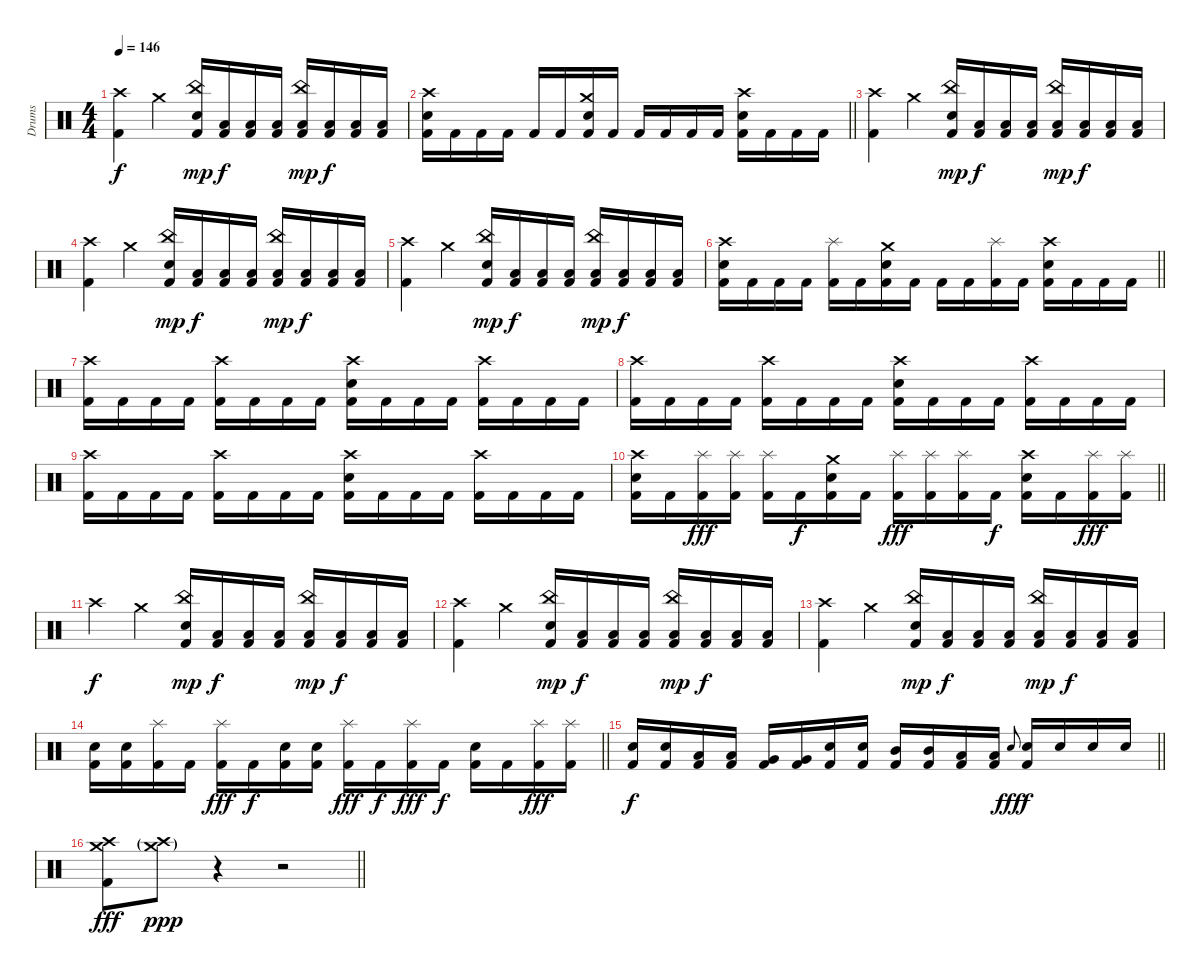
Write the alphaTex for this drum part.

\track ("Drums" "Drums") {instrument percussion}
\staff {score}
\articulation defaults
\ts (4 4)
\tempo 146
\clef neutral
\ks c
("Crash high (hit)" "Kick (hit) 2").4{dy f} "Crash medium (hit)".4 ("China (hit)" "Electric Snare (hit)" "Kick (hit) 2").16{dy mp} ("Low Floor Tom (hit)" "Kick (hit) 2").16{dy f} ("Low Floor Tom (hit)" "Kick (hit) 2").16 ("Low Floor Tom (hit)" "Kick (hit) 2").16 ("China (hit)" "Low Floor Tom (hit)" "Kick (hit) 2").16{dy mp} ("Low Floor Tom (hit)" "Kick (hit) 2").16{dy f} ("Low Floor Tom (hit)" "Kick (hit) 2").16 ("Low Floor Tom (hit)" "Kick (hit) 2").16 |
\barLineRight lightlight
("Crash high (hit)" "Electric Snare (hit)" "Kick (hit) 2").16 "Kick (hit) 2".16 "Kick (hit) 2".16 "Kick (hit) 2".16 "Kick (hit) 2".16 "Kick (hit) 2".16 ("Crash medium (hit)" "Electric Snare (hit)" "Kick (hit) 2").16 "Kick (hit) 2".16 "Kick (hit) 2".16 "Kick (hit) 2".16 "Kick (hit) 2".16 "Kick (hit) 2".16 ("Crash high (hit)" "Electric Snare (hit)" "Kick (hit) 2").16 "Kick (hit) 2".16 "Kick (hit) 2".16 "Kick (hit) 2".16 |
("Crash high (hit)" "Kick (hit) 2").4 "Crash medium (hit)".4 ("China (hit)" "Electric Snare (hit)" "Kick (hit) 2").16{dy mp} ("Low Floor Tom (hit)" "Kick (hit) 2").16{dy f} ("Low Floor Tom (hit)" "Kick (hit) 2").16 ("Low Floor Tom (hit)" "Kick (hit) 2").16 ("China (hit)" "Low Floor Tom (hit)" "Kick (hit) 2").16{dy mp} ("Low Floor Tom (hit)" "Kick (hit) 2").16{dy f} ("Low Floor Tom (hit)" "Kick (hit) 2").16 ("Low Floor Tom (hit)" "Kick (hit) 2").16 |
("Crash high (hit)" "Kick (hit) 2").4 "Crash medium (hit)".4 ("China (hit)" "Electric Snare (hit)" "Kick (hit) 2").16{dy mp} ("Low Floor Tom (hit)" "Kick (hit) 2").16{dy f} ("Low Floor Tom (hit)" "Kick (hit) 2").16 ("Low Floor Tom (hit)" "Kick (hit) 2").16 ("China (hit)" "Low Floor Tom (hit)" "Kick (hit) 2").16{dy mp} ("Low Floor Tom (hit)" "Kick (hit) 2").16{dy f} ("Low Floor Tom (hit)" "Kick (hit) 2").16 ("Low Floor Tom (hit)" "Kick (hit) 2").16 |
("Crash high (hit)" "Kick (hit) 2").4 "Crash medium (hit)".4 ("China (hit)" "Electric Snare (hit)" "Kick (hit) 2").16{dy mp} ("Low Floor Tom (hit)" "Kick (hit) 2").16{dy f} ("Low Floor Tom (hit)" "Kick (hit) 2").16 ("Low Floor Tom (hit)" "Kick (hit) 2").16 ("China (hit)" "Low Floor Tom (hit)" "Kick (hit) 2").16{dy mp} ("Low Floor Tom (hit)" "Kick (hit) 2").16{dy f} ("Low Floor Tom (hit)" "Kick (hit) 2").16 ("Low Floor Tom (hit)" "Kick (hit) 2").16 |
\barLineRight lightlight
("Crash high (hit)" "Electric Snare (hit)" "Kick (hit) 2").16 "Kick (hit) 2".16 "Kick (hit) 2".16 "Kick (hit) 2".16 ("Splash (hit)" "Kick (hit) 2").16 "Kick (hit) 2".16 ("Crash medium (hit)" "Electric Snare (hit)" "Kick (hit) 2").16 "Kick (hit) 2".16 "Kick (hit) 2".16 "Kick (hit) 2".16 ("Splash (hit)" "Kick (hit) 2").16 "Kick (hit) 2".16 ("Crash high (hit)" "Electric Snare (hit)" "Kick (hit) 2").16 "Kick (hit) 2".16 "Kick (hit) 2".16 "Kick (hit) 2".16 |
("Crash high (hit)" "Kick (hit) 2").16 "Kick (hit) 2".16 "Kick (hit) 2".16 "Kick (hit) 2".16 ("Crash high (hit)" "Kick (hit) 2").16 "Kick (hit) 2".16 "Kick (hit) 2".16 "Kick (hit) 2".16 ("Crash high (hit)" "Electric Snare (hit)" "Kick (hit) 2").16 "Kick (hit) 2".16 "Kick (hit) 2".16 "Kick (hit) 2".16 ("Crash high (hit)" "Kick (hit) 2").16 "Kick (hit) 2".16 "Kick (hit) 2".16 "Kick (hit) 2".16 |
("Crash high (hit)" "Kick (hit) 2").16 "Kick (hit) 2".16 "Kick (hit) 2".16 "Kick (hit) 2".16 ("Crash high (hit)" "Kick (hit) 2").16 "Kick (hit) 2".16 "Kick (hit) 2".16 "Kick (hit) 2".16 ("Crash high (hit)" "Electric Snare (hit)" "Kick (hit) 2").16 "Kick (hit) 2".16 "Kick (hit) 2".16 "Kick (hit) 2".16 ("Crash high (hit)" "Kick (hit) 2").16 "Kick (hit) 2".16 "Kick (hit) 2".16 "Kick (hit) 2".16 |
("Crash high (hit)" "Kick (hit) 2").16 "Kick (hit) 2".16 "Kick (hit) 2".16 "Kick (hit) 2".16 ("Crash high (hit)" "Kick (hit) 2").16 "Kick (hit) 2".16 "Kick (hit) 2".16 "Kick (hit) 2".16 ("Crash high (hit)" "Electric Snare (hit)" "Kick (hit) 2").16 "Kick (hit) 2".16 "Kick (hit) 2".16 "Kick (hit) 2".16 ("Crash high (hit)" "Kick (hit) 2").16 "Kick (hit) 2".16 "Kick (hit) 2".16 "Kick (hit) 2".16 |
\barLineRight lightlight
("Crash high (hit)" "Electric Snare (hit)" "Kick (hit) 2").16 "Kick (hit) 2".16 ("Splash (hit)" "Kick (hit) 2").16{dy fff} ("Splash (hit)" "Kick (hit) 2").16 ("Splash (hit)" "Kick (hit) 2").16 "Kick (hit) 2".16{dy f} ("Crash medium (hit)" "Electric Snare (hit)" "Kick (hit) 2").16 "Kick (hit) 2".16 ("Splash (hit)" "Kick (hit) 2").16{dy fff} ("Splash (hit)" "Kick (hit) 2").16 ("Splash (hit)" "Kick (hit) 2").16 "Kick (hit) 2".16{dy f} ("Crash high (hit)" "Electric Snare (hit)" "Kick (hit) 2").16 "Kick (hit) 2".16 ("Splash (hit)" "Kick (hit) 2").16{dy fff} ("Splash (hit)" "Kick (hit) 2").16 |
"Crash high (hit)".4{dy f} "Crash medium (hit)".4 ("China (hit)" "Electric Snare (hit)" "Kick (hit) 2").16{dy mp} ("Low Floor Tom (hit)" "Kick (hit) 2").16{dy f} ("Low Floor Tom (hit)" "Kick (hit) 2").16 ("Low Floor Tom (hit)" "Kick (hit) 2").16 ("China (hit)" "Low Floor Tom (hit)" "Kick (hit) 2").16{dy mp} ("Low Floor Tom (hit)" "Kick (hit) 2").16{dy f} ("Low Floor Tom (hit)" "Kick (hit) 2").16 ("Low Floor Tom (hit)" "Kick (hit) 2").16 |
("Crash high (hit)" "Kick (hit) 2").4 "Crash medium (hit)".4 ("China (hit)" "Electric Snare (hit)" "Kick (hit) 2").16{dy mp} ("Low Floor Tom (hit)" "Kick (hit) 2").16{dy f} ("Low Floor Tom (hit)" "Kick (hit) 2").16 ("Low Floor Tom (hit)" "Kick (hit) 2").16 ("China (hit)" "Low Floor Tom (hit)" "Kick (hit) 2").16{dy mp} ("Low Floor Tom (hit)" "Kick (hit) 2").16{dy f} ("Low Floor Tom (hit)" "Kick (hit) 2").16 ("Low Floor Tom (hit)" "Kick (hit) 2").16 |
("Crash high (hit)" "Kick (hit) 2").4 "Crash medium (hit)".4 ("China (hit)" "Electric Snare (hit)" "Kick (hit) 2").16{dy mp} ("Low Floor Tom (hit)" "Kick (hit) 2").16{dy f} ("Low Floor Tom (hit)" "Kick (hit) 2").16 ("Low Floor Tom (hit)" "Kick (hit) 2").16 ("China (hit)" "Low Floor Tom (hit)" "Kick (hit) 2").16{dy mp} ("Low Floor Tom (hit)" "Kick (hit) 2").16{dy f} ("Low Floor Tom (hit)" "Kick (hit) 2").16 ("Low Floor Tom (hit)" "Kick (hit) 2").16 |
\barLineRight lightlight
("Electric Snare (hit)" "Kick (hit) 2").16 ("Electric Snare (hit)" "Kick (hit) 2").16 ("Splash (hit)" "Kick (hit) 2").16 "Kick (hit) 2".16 ("Splash (hit)" "Kick (hit) 2").16{dy fff} "Kick (hit) 2".16{dy f} ("Electric Snare (hit)" "Kick (hit) 2").16 ("Electric Snare (hit)" "Kick (hit) 2").16 ("Splash (hit)" "Kick (hit) 2").16{dy fff} "Kick (hit) 2".16{dy f} ("Splash (hit)" "Kick (hit) 2").16{dy fff} "Kick (hit) 2".16{dy f} ("Electric Snare (hit)" "Kick (hit) 2").16 "Kick (hit) 2".16 ("Splash (hit)" "Kick (hit) 2").16{dy fff} ("Splash (hit)" "Kick (hit) 2").16 |
\barLineRight lightlight
("Electric Snare (hit)" "Kick (hit) 2").16{dy f} ("Electric Snare (hit)" "Kick (hit) 2").16 ("Low Tom (hit)" "Kick (hit) 2").16 ("Low Tom (hit)" "Kick (hit) 2").16 ("Very Low Tom (hit)" "Kick (hit) 2").16 ("Very Low Tom (hit)" "Kick (hit) 2").16 ("Electric Snare (hit)" "Kick (hit) 2").16 ("Electric Snare (hit)" "Kick (hit) 2").16 ("Mid Tom (hit)" "Kick (hit) 2").16 ("Mid Tom (hit)" "Kick (hit) 2").16 ("Low Tom (hit)" "Kick (hit) 2").16 ("Low Tom (hit)" "Kick (hit) 2").16 "Electric Snare (hit)".8{gr onbeat dy fff} ("Electric Snare (hit)" "Kick (hit) 2").16{dy f} "Electric Snare (hit)".16 "Electric Snare (hit)".16 "Electric Snare (hit)".16 |
\barLineRight lightlight
("Crash high (hit)" "Crash medium (hit)" "Kick (hit) 2").8{dy fff} ("Crash high (hit)"{g} "Crash medium (hit)"{g}).8{dy ppp} r.4 r.2
